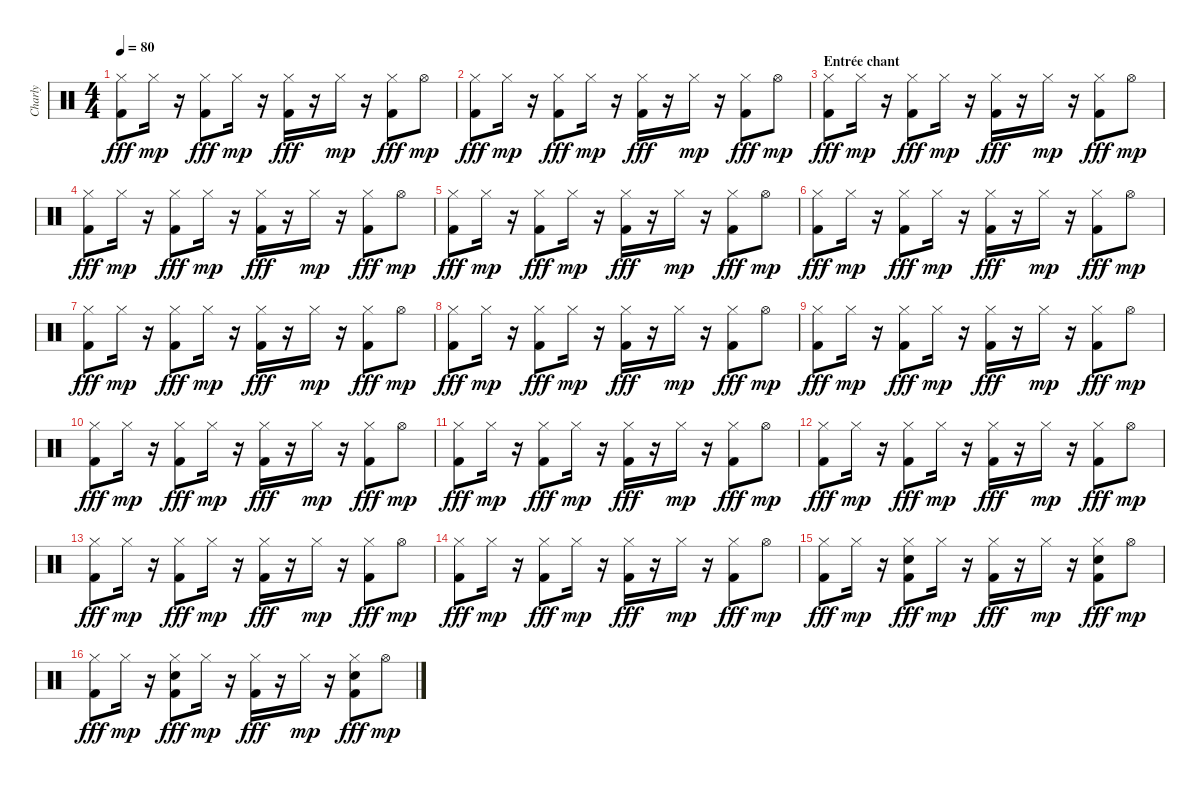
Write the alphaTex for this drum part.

\track ("Charly" "Charly") {instrument percussion}
\staff {score}
\articulation defaults
\ts (4 4)
\tempo 80
\clef neutral
\ks c
("Hi-Hat (closed)" "Kick (hit) 2").8{dy fff} "Hi-Hat (closed)".16{dy mp} r.16 ("Hi-Hat (closed)" "Kick (hit) 2").8{dy fff} "Hi-Hat (closed)".16{dy mp} r.16 ("Hi-Hat (closed)" "Kick (hit) 2").16{dy fff} r.16 "Hi-Hat (closed)".16{dy mp} r.16 ("Hi-Hat (closed)" "Kick (hit) 2").8{dy fff} "Hi-Hat (open)".8{dy mp} |
("Hi-Hat (closed)" "Kick (hit) 2").8{dy fff} "Hi-Hat (closed)".16{dy mp} r.16 ("Hi-Hat (closed)" "Kick (hit) 2").8{dy fff} "Hi-Hat (closed)".16{dy mp} r.16 ("Hi-Hat (closed)" "Kick (hit) 2").16{dy fff} r.16 "Hi-Hat (closed)".16{dy mp} r.16 ("Hi-Hat (closed)" "Kick (hit) 2").8{dy fff} "Hi-Hat (open)".8{dy mp} |
\section ("" "Entrée chant")
("Hi-Hat (closed)" "Kick (hit) 2").8{dy fff} "Hi-Hat (closed)".16{dy mp} r.16 ("Hi-Hat (closed)" "Kick (hit) 2").8{dy fff} "Hi-Hat (closed)".16{dy mp} r.16 ("Hi-Hat (closed)" "Kick (hit) 2").16{dy fff} r.16 "Hi-Hat (closed)".16{dy mp} r.16 ("Hi-Hat (closed)" "Kick (hit) 2").8{dy fff} "Hi-Hat (open)".8{dy mp} |
("Hi-Hat (closed)" "Kick (hit) 2").8{dy fff} "Hi-Hat (closed)".16{dy mp} r.16 ("Hi-Hat (closed)" "Kick (hit) 2").8{dy fff} "Hi-Hat (closed)".16{dy mp} r.16 ("Hi-Hat (closed)" "Kick (hit) 2").16{dy fff} r.16 "Hi-Hat (closed)".16{dy mp} r.16 ("Hi-Hat (closed)" "Kick (hit) 2").8{dy fff} "Hi-Hat (open)".8{dy mp} |
("Hi-Hat (closed)" "Kick (hit) 2").8{dy fff} "Hi-Hat (closed)".16{dy mp} r.16 ("Hi-Hat (closed)" "Kick (hit) 2").8{dy fff} "Hi-Hat (closed)".16{dy mp} r.16 ("Hi-Hat (closed)" "Kick (hit) 2").16{dy fff} r.16 "Hi-Hat (closed)".16{dy mp} r.16 ("Hi-Hat (closed)" "Kick (hit) 2").8{dy fff} "Hi-Hat (open)".8{dy mp} |
("Hi-Hat (closed)" "Kick (hit) 2").8{dy fff} "Hi-Hat (closed)".16{dy mp} r.16 ("Hi-Hat (closed)" "Kick (hit) 2").8{dy fff} "Hi-Hat (closed)".16{dy mp} r.16 ("Hi-Hat (closed)" "Kick (hit) 2").16{dy fff} r.16 "Hi-Hat (closed)".16{dy mp} r.16 ("Hi-Hat (closed)" "Kick (hit) 2").8{dy fff} "Hi-Hat (open)".8{dy mp} |
("Hi-Hat (closed)" "Kick (hit) 2").8{dy fff} "Hi-Hat (closed)".16{dy mp} r.16 ("Hi-Hat (closed)" "Kick (hit) 2").8{dy fff} "Hi-Hat (closed)".16{dy mp} r.16 ("Hi-Hat (closed)" "Kick (hit) 2").16{dy fff} r.16 "Hi-Hat (closed)".16{dy mp} r.16 ("Hi-Hat (closed)" "Kick (hit) 2").8{dy fff} "Hi-Hat (open)".8{dy mp} |
("Hi-Hat (closed)" "Kick (hit) 2").8{dy fff} "Hi-Hat (closed)".16{dy mp} r.16 ("Hi-Hat (closed)" "Kick (hit) 2").8{dy fff} "Hi-Hat (closed)".16{dy mp} r.16 ("Hi-Hat (closed)" "Kick (hit) 2").16{dy fff} r.16 "Hi-Hat (closed)".16{dy mp} r.16 ("Hi-Hat (closed)" "Kick (hit) 2").8{dy fff} "Hi-Hat (open)".8{dy mp} |
("Hi-Hat (closed)" "Kick (hit) 2").8{dy fff} "Hi-Hat (closed)".16{dy mp} r.16 ("Hi-Hat (closed)" "Kick (hit) 2").8{dy fff} "Hi-Hat (closed)".16{dy mp} r.16 ("Hi-Hat (closed)" "Kick (hit) 2").16{dy fff} r.16 "Hi-Hat (closed)".16{dy mp} r.16 ("Hi-Hat (closed)" "Kick (hit) 2").8{dy fff} "Hi-Hat (open)".8{dy mp} |
("Hi-Hat (closed)" "Kick (hit) 2").8{dy fff} "Hi-Hat (closed)".16{dy mp} r.16 ("Hi-Hat (closed)" "Kick (hit) 2").8{dy fff} "Hi-Hat (closed)".16{dy mp} r.16 ("Hi-Hat (closed)" "Kick (hit) 2").16{dy fff} r.16 "Hi-Hat (closed)".16{dy mp} r.16 ("Hi-Hat (closed)" "Kick (hit) 2").8{dy fff} "Hi-Hat (open)".8{dy mp} |
("Hi-Hat (closed)" "Kick (hit) 2").8{dy fff} "Hi-Hat (closed)".16{dy mp} r.16 ("Hi-Hat (closed)" "Kick (hit) 2").8{dy fff} "Hi-Hat (closed)".16{dy mp} r.16 ("Hi-Hat (closed)" "Kick (hit) 2").16{dy fff} r.16 "Hi-Hat (closed)".16{dy mp} r.16 ("Hi-Hat (closed)" "Kick (hit) 2").8{dy fff} "Hi-Hat (open)".8{dy mp} |
("Hi-Hat (closed)" "Kick (hit) 2").8{dy fff} "Hi-Hat (closed)".16{dy mp} r.16 ("Hi-Hat (closed)" "Kick (hit) 2").8{dy fff} "Hi-Hat (closed)".16{dy mp} r.16 ("Hi-Hat (closed)" "Kick (hit) 2").16{dy fff} r.16 "Hi-Hat (closed)".16{dy mp} r.16 ("Hi-Hat (closed)" "Kick (hit) 2").8{dy fff} "Hi-Hat (open)".8{dy mp} |
("Hi-Hat (closed)" "Kick (hit) 2").8{dy fff} "Hi-Hat (closed)".16{dy mp} r.16 ("Hi-Hat (closed)" "Kick (hit) 2").8{dy fff} "Hi-Hat (closed)".16{dy mp} r.16 ("Hi-Hat (closed)" "Kick (hit) 2").16{dy fff} r.16 "Hi-Hat (closed)".16{dy mp} r.16 ("Hi-Hat (closed)" "Kick (hit) 2").8{dy fff} "Hi-Hat (open)".8{dy mp} |
("Hi-Hat (closed)" "Kick (hit) 2").8{dy fff} "Hi-Hat (closed)".16{dy mp} r.16 ("Hi-Hat (closed)" "Kick (hit) 2").8{dy fff} "Hi-Hat (closed)".16{dy mp} r.16 ("Hi-Hat (closed)" "Kick (hit) 2").16{dy fff} r.16 "Hi-Hat (closed)".16{dy mp} r.16 ("Hi-Hat (closed)" "Kick (hit) 2").8{dy fff} "Hi-Hat (open)".8{dy mp} |
("Hi-Hat (closed)" "Kick (hit) 2").8{dy fff} "Hi-Hat (closed)".16{dy mp} r.16 ("Hi-Hat (closed)" "Snare (hit) 2" "Kick (hit) 2").8{dy fff} "Hi-Hat (closed)".16{dy mp} r.16 ("Hi-Hat (closed)" "Kick (hit) 2").16{dy fff} r.16 "Hi-Hat (closed)".16{dy mp} r.16 ("Hi-Hat (closed)" "Snare (hit) 2" "Kick (hit) 2").8{dy fff} "Hi-Hat (open)".8{dy mp} |
("Hi-Hat (closed)" "Kick (hit) 2").8{dy fff} "Hi-Hat (closed)".16{dy mp} r.16 ("Hi-Hat (closed)" "Snare (hit) 2" "Kick (hit) 2").8{dy fff} "Hi-Hat (closed)".16{dy mp} r.16 ("Hi-Hat (closed)" "Kick (hit) 2").16{dy fff} r.16 "Hi-Hat (closed)".16{dy mp} r.16 ("Hi-Hat (closed)" "Snare (hit) 2" "Kick (hit) 2").8{dy fff} "Hi-Hat (open)".8{dy mp}
